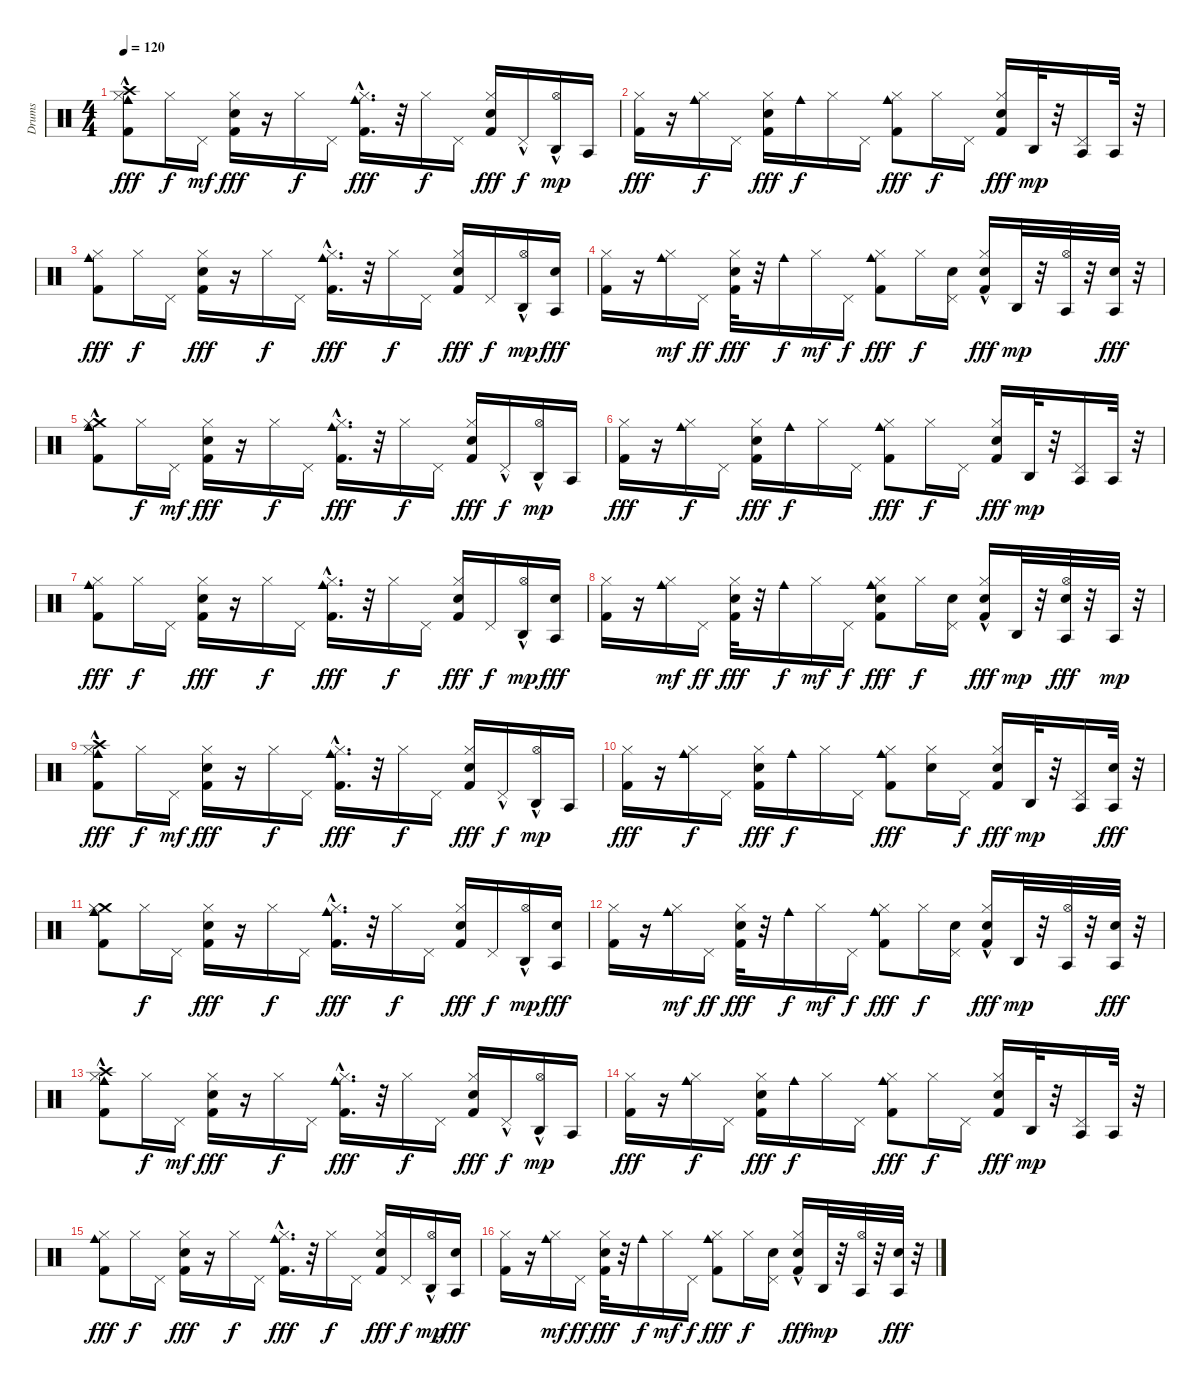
\track ("Drums" "Drums") {instrument percussion}
\staff {score}
\articulation defaults
\ts (4 4)
\tempo 120
\clef neutral
\ks c
("Cowbell medium (hit)" "Crash high (hit)"{hac} "Hi-Hat (closed)" "Kick (hit) 2").8{dy fff} "Hi-Hat (closed)".16{dy f} "Pedal Hi-Hat (hit)".16{dy mf} ("Electric Snare (hit)" "Kick (hit) 2" "Hi-Hat (closed)").16{dy fff} r.16 "Hi-Hat (closed)".16{dy f} "Pedal Hi-Hat (hit)".16 ("Cowbell medium (hit)"{hac} "Kick (hit) 2" "Hi-Hat (closed)").16{d dy fff} r.32 "Hi-Hat (closed)".16{dy f} "Pedal Hi-Hat (hit)".16 ("Kick (hit) 2" "Electric Snare (hit)" "Hi-Hat (closed)").16{dy fff} "Pedal Hi-Hat (hit)"{hac}.16{dy f} ("Agogo high (hit)" "Hi-Hat (open)"{hac}).16{dy mp} "Agogo tow (hit)".16 |
("Kick (hit) 2" "Hi-Hat (closed)").16{dy fff} r.16 ("Cowbell medium (hit)" "Hi-Hat (closed)").16{dy f} "Pedal Hi-Hat (hit)".16 ("Hi-Hat (closed)" "Kick (hit) 2" "Electric Snare (hit)").16{dy fff} "Cowbell medium (hit)".16{dy f} "Hi-Hat (closed)".16 "Pedal Hi-Hat (hit)".16 ("Cowbell medium (hit)" "Kick (hit) 2" "Hi-Hat (closed)").8{dy fff} "Hi-Hat (closed)".16{dy f} "Pedal Hi-Hat (hit)".16 ("Electric Snare (hit)" "Kick (hit) 2" "Hi-Hat (closed)").16{dy fff} "Agogo high (hit)".32{dy mp} r.32 ("Agogo tow (hit)" "Pedal Hi-Hat (hit)").16 "Agogo tow (hit)".32 r.32 |
("Cowbell medium (hit)" "Kick (hit) 2" "Hi-Hat (closed)").8{dy fff} "Hi-Hat (closed)".16{dy f} "Pedal Hi-Hat (hit)".16 ("Electric Snare (hit)" "Kick (hit) 2" "Hi-Hat (closed)").16{dy fff} r.16 "Hi-Hat (closed)".16{dy f} "Pedal Hi-Hat (hit)".16 ("Cowbell medium (hit)"{hac} "Hi-Hat (closed)" "Kick (hit) 2").16{d dy fff} r.32 "Hi-Hat (closed)".16{dy f} "Pedal Hi-Hat (hit)".16 ("Kick (hit) 2" "Electric Snare (hit)" "Hi-Hat (closed)").16{dy fff} "Pedal Hi-Hat (hit)".16{dy f} ("Agogo high (hit)" "Hi-Hat (open)"{hac}).16{dy mp} ("Agogo tow (hit)" "Electric Snare (hit)").16{dy fff} |
("Kick (hit) 2" "Hi-Hat (closed)").16 r.16 ("Cowbell medium (hit)" "Hi-Hat (closed)").16{dy mf} "Pedal Hi-Hat (hit)".16{dy ff} ("Electric Snare (hit)" "Kick (hit) 2" "Hi-Hat (closed)").32{dy fff} r.32 "Cowbell medium (hit)".16{dy f} "Hi-Hat (closed)".16{dy mf} "Pedal Hi-Hat (hit)".16{dy f} ("Cowbell medium (hit)" "Hi-Hat (closed)" "Kick (hit) 2").8{dy fff} "Hi-Hat (closed)".16{dy f} ("Pedal Hi-Hat (hit)" "Electric Snare (hit)").16 ("Hi-Hat (closed)" "Kick (hit) 2"{hac} "Electric Snare (hit)").16{dy fff} "Agogo high (hit)".32{dy mp} r.32 ("Agogo tow (hit)" "Hi-Hat (open)").32 r.32 ("Agogo tow (hit)" "Electric Snare (hit)").32{dy fff} r.32 |
("Cowbell medium (hit)" "Crash medium (hit)"{hac} "Hi-Hat (closed)" "Kick (hit) 2").8 "Hi-Hat (closed)".16{dy f} "Pedal Hi-Hat (hit)".16{dy mf} ("Electric Snare (hit)" "Kick (hit) 2" "Hi-Hat (closed)").16{dy fff} r.16 "Hi-Hat (closed)".16{dy f} "Pedal Hi-Hat (hit)".16 ("Cowbell medium (hit)"{hac} "Kick (hit) 2" "Hi-Hat (closed)").16{d dy fff} r.32 "Hi-Hat (closed)".16{dy f} "Pedal Hi-Hat (hit)".16 ("Kick (hit) 2" "Electric Snare (hit)" "Hi-Hat (closed)").16{dy fff} "Pedal Hi-Hat (hit)"{hac}.16{dy f} ("Agogo high (hit)" "Hi-Hat (open)"{hac}).16{dy mp} "Agogo tow (hit)".16 |
("Kick (hit) 2" "Hi-Hat (closed)").16{dy fff} r.16 ("Cowbell medium (hit)" "Hi-Hat (closed)").16{dy f} "Pedal Hi-Hat (hit)".16 ("Hi-Hat (closed)" "Kick (hit) 2" "Electric Snare (hit)").16{dy fff} "Cowbell medium (hit)".16{dy f} "Hi-Hat (closed)".16 "Pedal Hi-Hat (hit)".16 ("Cowbell medium (hit)" "Kick (hit) 2" "Hi-Hat (closed)").8{dy fff} "Hi-Hat (closed)".16{dy f} "Pedal Hi-Hat (hit)".16 ("Electric Snare (hit)" "Kick (hit) 2" "Hi-Hat (closed)").16{dy fff} "Agogo high (hit)".32{dy mp} r.32 ("Agogo tow (hit)" "Pedal Hi-Hat (hit)").16 "Agogo tow (hit)".32 r.32 |
("Cowbell medium (hit)" "Kick (hit) 2" "Hi-Hat (closed)").8{dy fff} "Hi-Hat (closed)".16{dy f} "Pedal Hi-Hat (hit)".16 ("Electric Snare (hit)" "Kick (hit) 2" "Hi-Hat (closed)").16{dy fff} r.16 "Hi-Hat (closed)".16{dy f} "Pedal Hi-Hat (hit)".16 ("Cowbell medium (hit)"{hac} "Hi-Hat (closed)" "Kick (hit) 2").16{d dy fff} r.32 "Hi-Hat (closed)".16{dy f} "Pedal Hi-Hat (hit)".16 ("Kick (hit) 2" "Electric Snare (hit)" "Hi-Hat (closed)").16{dy fff} "Pedal Hi-Hat (hit)".16{dy f} ("Agogo high (hit)" "Hi-Hat (open)"{hac}).16{dy mp} ("Agogo tow (hit)" "Electric Snare (hit)").16{dy fff} |
("Kick (hit) 2" "Hi-Hat (closed)").16 r.16 ("Cowbell medium (hit)" "Hi-Hat (closed)").16{dy mf} "Pedal Hi-Hat (hit)".16{dy ff} ("Electric Snare (hit)" "Kick (hit) 2" "Hi-Hat (closed)").32{dy fff} r.32 "Cowbell medium (hit)".16{dy f} "Hi-Hat (closed)".16{dy mf} "Pedal Hi-Hat (hit)".16{dy f} ("Cowbell medium (hit)" "Electric Snare (hit)" "Hi-Hat (closed)" "Kick (hit) 2").8{dy fff} "Hi-Hat (closed)".16{dy f} ("Pedal Hi-Hat (hit)" "Electric Snare (hit)").16 ("Hi-Hat (closed)" "Kick (hit) 2"{hac} "Electric Snare (hit)").16{dy fff} "Agogo high (hit)".32{dy mp} r.32 ("Agogo tow (hit)" "Electric Snare (hit)" "Hi-Hat (open)").32{dy fff} r.32 "Agogo tow (hit)".32{dy mp} r.32 |
("Cowbell medium (hit)" "Crash high (hit)"{hac} "Hi-Hat (closed)" "Kick (hit) 2").8{dy fff} "Hi-Hat (closed)".16{dy f} "Pedal Hi-Hat (hit)".16{dy mf} ("Electric Snare (hit)" "Kick (hit) 2" "Hi-Hat (closed)").16{dy fff} r.16 "Hi-Hat (closed)".16{dy f} "Pedal Hi-Hat (hit)".16 ("Cowbell medium (hit)"{hac} "Kick (hit) 2" "Hi-Hat (closed)").16{d dy fff} r.32 "Hi-Hat (closed)".16{dy f} "Pedal Hi-Hat (hit)".16 ("Kick (hit) 2" "Electric Snare (hit)" "Hi-Hat (closed)").16{dy fff} "Pedal Hi-Hat (hit)"{hac}.16{dy f} ("Agogo high (hit)" "Hi-Hat (open)"{hac}).16{dy mp} "Agogo tow (hit)".16 |
("Kick (hit) 2" "Hi-Hat (closed)").16{dy fff} r.16 ("Cowbell medium (hit)" "Hi-Hat (closed)").16{dy f} "Pedal Hi-Hat (hit)".16 ("Hi-Hat (closed)" "Kick (hit) 2" "Electric Snare (hit)").16{dy fff} "Cowbell medium (hit)".16{dy f} "Hi-Hat (closed)".16 "Pedal Hi-Hat (hit)".16 ("Cowbell medium (hit)" "Kick (hit) 2" "Hi-Hat (closed)").8{dy fff} ("Hi-Hat (closed)" "Electric Snare (hit)").16 "Pedal Hi-Hat (hit)".16{dy f} ("Electric Snare (hit)" "Kick (hit) 2" "Hi-Hat (closed)").16{dy fff} "Agogo high (hit)".32{dy mp} r.32 ("Agogo tow (hit)" "Pedal Hi-Hat (hit)").16 ("Agogo tow (hit)" "Electric Snare (hit)").32{dy fff} r.32 |
("Cowbell medium (hit)" "Crash medium (hit)" "Kick (hit) 2" "Hi-Hat (closed)").8 "Hi-Hat (closed)".16{dy f} "Pedal Hi-Hat (hit)".16 ("Electric Snare (hit)" "Kick (hit) 2" "Hi-Hat (closed)").16{dy fff} r.16 "Hi-Hat (closed)".16{dy f} "Pedal Hi-Hat (hit)".16 ("Cowbell medium (hit)"{hac} "Hi-Hat (closed)" "Kick (hit) 2").16{d dy fff} r.32 "Hi-Hat (closed)".16{dy f} "Pedal Hi-Hat (hit)".16 ("Kick (hit) 2" "Electric Snare (hit)" "Hi-Hat (closed)").16{dy fff} "Pedal Hi-Hat (hit)".16{dy f} ("Agogo high (hit)" "Hi-Hat (open)"{hac}).16{dy mp} ("Agogo tow (hit)" "Electric Snare (hit)").16{dy fff} |
("Kick (hit) 2" "Hi-Hat (closed)").16 r.16 ("Cowbell medium (hit)" "Hi-Hat (closed)").16{dy mf} "Pedal Hi-Hat (hit)".16{dy ff} ("Electric Snare (hit)" "Kick (hit) 2" "Hi-Hat (closed)").32{dy fff} r.32 "Cowbell medium (hit)".16{dy f} "Hi-Hat (closed)".16{dy mf} "Pedal Hi-Hat (hit)".16{dy f} ("Cowbell medium (hit)" "Hi-Hat (closed)" "Kick (hit) 2").8{dy fff} "Hi-Hat (closed)".16{dy f} ("Pedal Hi-Hat (hit)" "Electric Snare (hit)").16 ("Hi-Hat (closed)" "Kick (hit) 2"{hac} "Electric Snare (hit)").16{dy fff} "Agogo high (hit)".32{dy mp} r.32 ("Agogo tow (hit)" "Hi-Hat (open)").32 r.32 ("Agogo tow (hit)" "Electric Snare (hit)").32{dy fff} r.32 |
("Cowbell medium (hit)" "Crash high (hit)"{hac} "Hi-Hat (closed)" "Kick (hit) 2").8 "Hi-Hat (closed)".16{dy f} "Pedal Hi-Hat (hit)".16{dy mf} ("Electric Snare (hit)" "Kick (hit) 2" "Hi-Hat (closed)").16{dy fff} r.16 "Hi-Hat (closed)".16{dy f} "Pedal Hi-Hat (hit)".16 ("Cowbell medium (hit)"{hac} "Kick (hit) 2" "Hi-Hat (closed)").16{d dy fff} r.32 "Hi-Hat (closed)".16{dy f} "Pedal Hi-Hat (hit)".16 ("Kick (hit) 2" "Electric Snare (hit)" "Hi-Hat (closed)").16{dy fff} "Pedal Hi-Hat (hit)"{hac}.16{dy f} ("Agogo high (hit)" "Hi-Hat (open)"{hac}).16{dy mp} "Agogo tow (hit)".16 |
("Kick (hit) 2" "Hi-Hat (closed)").16{dy fff} r.16 ("Cowbell medium (hit)" "Hi-Hat (closed)").16{dy f} "Pedal Hi-Hat (hit)".16 ("Hi-Hat (closed)" "Kick (hit) 2" "Electric Snare (hit)").16{dy fff} "Cowbell medium (hit)".16{dy f} "Hi-Hat (closed)".16 "Pedal Hi-Hat (hit)".16 ("Cowbell medium (hit)" "Kick (hit) 2" "Hi-Hat (closed)").8{dy fff} "Hi-Hat (closed)".16{dy f} "Pedal Hi-Hat (hit)".16 ("Electric Snare (hit)" "Kick (hit) 2" "Hi-Hat (closed)").16{dy fff} "Agogo high (hit)".32{dy mp} r.32 ("Agogo tow (hit)" "Pedal Hi-Hat (hit)").16 "Agogo tow (hit)".32 r.32 |
("Cowbell medium (hit)" "Kick (hit) 2" "Hi-Hat (closed)").8{dy fff} "Hi-Hat (closed)".16{dy f} "Pedal Hi-Hat (hit)".16 ("Electric Snare (hit)" "Kick (hit) 2" "Hi-Hat (closed)").16{dy fff} r.16 "Hi-Hat (closed)".16{dy f} "Pedal Hi-Hat (hit)".16 ("Cowbell medium (hit)"{hac} "Hi-Hat (closed)" "Kick (hit) 2").16{d dy fff} r.32 "Hi-Hat (closed)".16{dy f} "Pedal Hi-Hat (hit)".16 ("Kick (hit) 2" "Electric Snare (hit)" "Hi-Hat (closed)").16{dy fff} "Pedal Hi-Hat (hit)".16{dy f} ("Agogo high (hit)" "Hi-Hat (open)"{hac}).16{dy mp} ("Agogo tow (hit)" "Electric Snare (hit)").16{dy fff} |
("Kick (hit) 2" "Hi-Hat (closed)").16 r.16 ("Cowbell medium (hit)" "Hi-Hat (closed)").16{dy mf} "Pedal Hi-Hat (hit)".16{dy ff} ("Electric Snare (hit)" "Kick (hit) 2" "Hi-Hat (closed)").32{dy fff} r.32 "Cowbell medium (hit)".16{dy f} "Hi-Hat (closed)".16{dy mf} "Pedal Hi-Hat (hit)".16{dy f} ("Cowbell medium (hit)" "Hi-Hat (closed)" "Kick (hit) 2").8{dy fff} "Hi-Hat (closed)".16{dy f} ("Pedal Hi-Hat (hit)" "Electric Snare (hit)").16 ("Hi-Hat (closed)" "Kick (hit) 2"{hac} "Electric Snare (hit)").16{dy fff} "Agogo high (hit)".32{dy mp} r.32 ("Agogo tow (hit)" "Hi-Hat (open)").32 r.32 ("Agogo tow (hit)" "Electric Snare (hit)").32{dy fff} r.32
